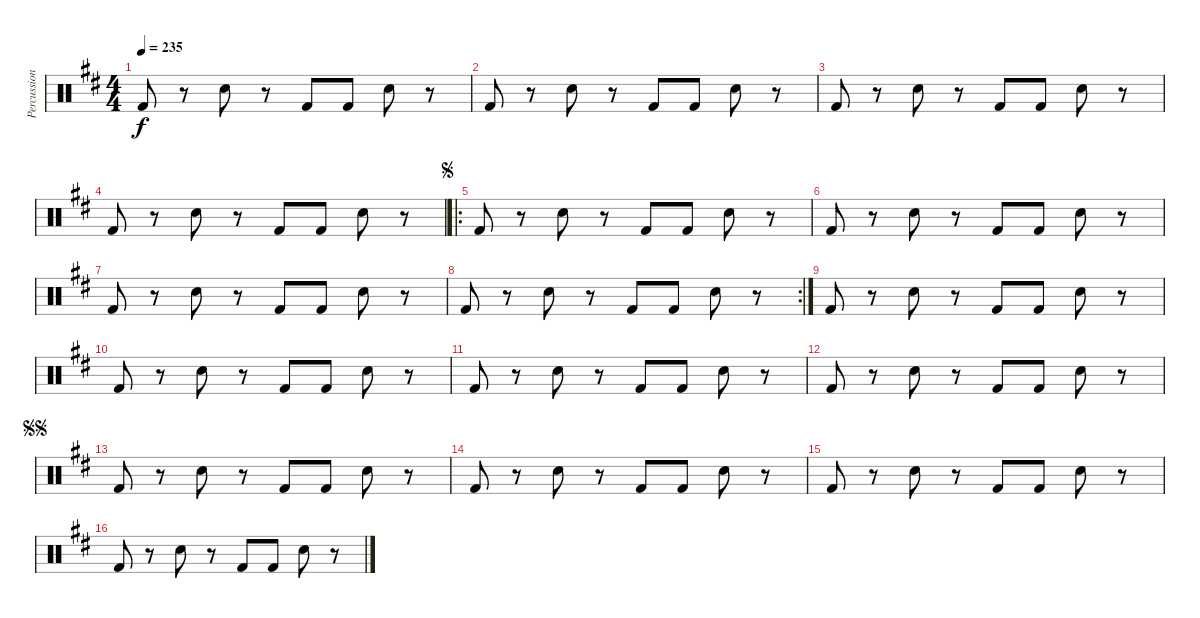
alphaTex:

\track ("Percussion" "Percussion") {instrument percussion}
\staff {score}
\articulation defaults
\ts (4 4)
\tempo 235
\clef neutral
\ks d "Kick (hit) 2".8{dy f}
r.8 "Snare (hit) 2".8 r.8 "Kick (hit) 2".8 "Kick (hit) 2".8 "Snare (hit) 2".8 r.8 |
"Kick (hit) 2".8 r.8 "Snare (hit) 2".8 r.8 "Kick (hit) 2".8 "Kick (hit) 2".8 "Snare (hit) 2".8 r.8 |
"Kick (hit) 2".8 r.8 "Snare (hit) 2".8 r.8 "Kick (hit) 2".8 "Kick (hit) 2".8 "Snare (hit) 2".8 r.8 |
"Kick (hit) 2".8 r.8 "Snare (hit) 2".8 r.8 "Kick (hit) 2".8 "Kick (hit) 2".8 "Snare (hit) 2".8 r.8 |
\ro
\jump segno "Kick (hit) 2".8
r.8 "Snare (hit) 2".8 r.8 "Kick (hit) 2".8 "Kick (hit) 2".8 "Snare (hit) 2".8 r.8 |
"Kick (hit) 2".8 r.8 "Snare (hit) 2".8 r.8 "Kick (hit) 2".8 "Kick (hit) 2".8 "Snare (hit) 2".8 r.8 |
"Kick (hit) 2".8 r.8 "Snare (hit) 2".8 r.8 "Kick (hit) 2".8 "Kick (hit) 2".8 "Snare (hit) 2".8 r.8 |
\rc 2 "Kick (hit) 2".8
r.8 "Snare (hit) 2".8 r.8 "Kick (hit) 2".8 "Kick (hit) 2".8 "Snare (hit) 2".8 r.8 |
"Kick (hit) 2".8 r.8 "Snare (hit) 2".8 r.8 "Kick (hit) 2".8 "Kick (hit) 2".8 "Snare (hit) 2".8 r.8 |
"Kick (hit) 2".8 r.8 "Snare (hit) 2".8 r.8 "Kick (hit) 2".8 "Kick (hit) 2".8 "Snare (hit) 2".8 r.8 |
"Kick (hit) 2".8 r.8 "Snare (hit) 2".8 r.8 "Kick (hit) 2".8 "Kick (hit) 2".8 "Snare (hit) 2".8 r.8 |
"Kick (hit) 2".8 r.8 "Snare (hit) 2".8 r.8 "Kick (hit) 2".8 "Kick (hit) 2".8 "Snare (hit) 2".8 r.8 |
\jump segnosegno "Kick (hit) 2".8
r.8 "Snare (hit) 2".8 r.8 "Kick (hit) 2".8 "Kick (hit) 2".8 "Snare (hit) 2".8 r.8 |
"Kick (hit) 2".8 r.8 "Snare (hit) 2".8 r.8 "Kick (hit) 2".8 "Kick (hit) 2".8 "Snare (hit) 2".8 r.8 |
"Kick (hit) 2".8 r.8 "Snare (hit) 2".8 r.8 "Kick (hit) 2".8 "Kick (hit) 2".8 "Snare (hit) 2".8 r.8 |
"Kick (hit) 2".8 r.8 "Snare (hit) 2".8 r.8 "Kick (hit) 2".8 "Kick (hit) 2".8 "Snare (hit) 2".8 r.8
